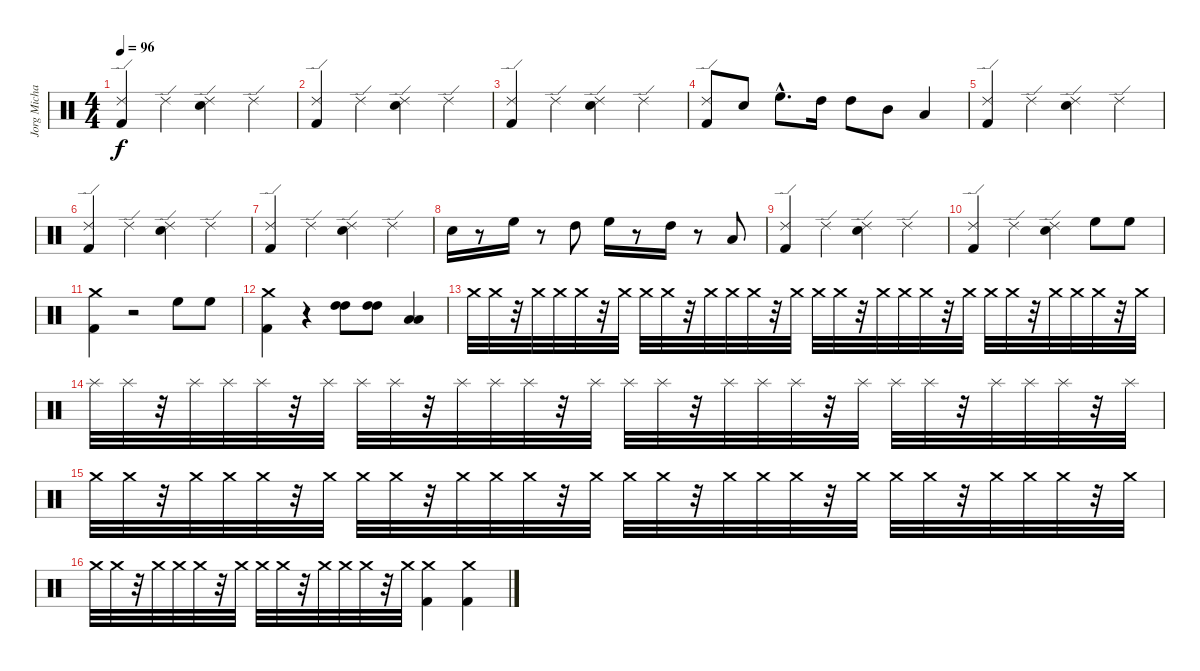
\track ("Jorg Michael" "Jorg Micha") {instrument percussion}
\staff {score}
\articulation defaults
\ts (4 4)
\tempo 96
\clef neutral
\ks c
("Ride (edge) 2" "Kick (hit) 2").4{dy f} "Ride (edge) 2".4 ("Ride (edge) 2" "Snare (hit) 2").4 "Ride (edge) 2".4 |
("Ride (edge) 2" "Kick (hit) 2").4 "Ride (edge) 2".4 ("Ride (edge) 2" "Snare (hit) 2").4 "Ride (edge) 2".4 |
("Ride (edge) 2" "Kick (hit) 2").4 "Ride (edge) 2".4 ("Ride (edge) 2" "Snare (hit) 2").4 "Ride (edge) 2".4 |
("Ride (edge) 2" "Kick (hit) 2").8 "Snare (hit) 2".8 "High Floor Tom (hit)"{hac}.8{d} "High Tom (hit)".16 "High Tom (hit)".8 "Mid Tom (hit)".8 "Low Tom (hit)".4 |
("Kick (hit) 2" "Ride (edge) 2").4 "Ride (edge) 2".4 ("Snare (hit) 2" "Ride (edge) 2").4 "Ride (edge) 2".4 |
("Kick (hit) 2" "Ride (edge) 2").4 "Ride (edge) 2".4 ("Snare (hit) 2" "Ride (edge) 2").4 "Ride (edge) 2".4 |
("Kick (hit) 2" "Ride (edge) 2").4 "Ride (edge) 2".4 ("Snare (hit) 2" "Ride (edge) 2").4 "Ride (edge) 2".4 |
"Snare (hit) 2".16 r.8 "High Floor Tom (hit)".16 r.8 "High Tom (hit)".8 "High Floor Tom (hit)".16 r.8 "High Tom (hit)".16 r.8 "Low Tom (hit)".8 |
("Kick (hit) 2" "Ride (edge) 2").4 "Ride (edge) 2".4 ("Snare (hit) 2" "Ride (edge) 2").4 "Ride (edge) 2".4 |
("Kick (hit) 2" "Ride (edge) 2").4 "Ride (edge) 2".4 ("Snare (hit) 2" "Ride (edge) 2").4 "High Floor Tom (hit)".8 "High Floor Tom (hit)".8 |
("Kick (hit) 2" "Crash medium (hit)").4 r.2 "High Floor Tom (hit)".8 "High Floor Tom (hit)".8 |
("Kick (hit) 2" "Crash medium (hit)").4 r.4 ("High Tom (hit)" "High Tom (hit)").8 ("High Tom (hit)" "High Tom (hit)").8 ("Low Tom (hit)" "Low Tom (hit)").4 |
"Crash medium (hit)".32 "Crash medium (hit)".32 r.32 "Crash medium (hit)".32 "Crash medium (hit)".32 "Crash medium (hit)".32 r.32 "Crash medium (hit)".32 "Crash medium (hit)".32 "Crash medium (hit)".32 r.32 "Crash medium (hit)".32 "Crash medium (hit)".32 "Crash medium (hit)".32 r.32 "Crash medium (hit)".32 "Crash medium (hit)".32 "Crash medium (hit)".32 r.32 "Crash medium (hit)".32 "Crash medium (hit)".32 "Crash medium (hit)".32 r.32 "Crash medium (hit)".32 "Crash medium (hit)".32 "Crash medium (hit)".32 r.32 "Crash medium (hit)".32 "Crash medium (hit)".32 "Crash medium (hit)".32 r.32 "Crash medium (hit)".32 |
"Splash (hit)".32 "Splash (hit)".32 r.32 "Splash (hit)".32 "Splash (hit)".32 "Splash (hit)".32 r.32 "Splash (hit)".32 "Splash (hit)".32 "Splash (hit)".32 r.32 "Splash (hit)".32 "Splash (hit)".32 "Splash (hit)".32 r.32 "Splash (hit)".32 "Splash (hit)".32 "Splash (hit)".32 r.32 "Splash (hit)".32 "Splash (hit)".32 "Splash (hit)".32 r.32 "Splash (hit)".32 "Splash (hit)".32 "Splash (hit)".32 r.32 "Splash (hit)".32 "Splash (hit)".32 "Splash (hit)".32 r.32 "Splash (hit)".32 |
"Crash medium (hit)".32 "Crash medium (hit)".32 r.32 "Crash medium (hit)".32 "Crash medium (hit)".32 "Crash medium (hit)".32 r.32 "Crash medium (hit)".32 "Crash medium (hit)".32 "Crash medium (hit)".32 r.32 "Crash medium (hit)".32 "Crash medium (hit)".32 "Crash medium (hit)".32 r.32 "Crash medium (hit)".32 "Crash medium (hit)".32 "Crash medium (hit)".32 r.32 "Crash medium (hit)".32 "Crash medium (hit)".32 "Crash medium (hit)".32 r.32 "Crash medium (hit)".32 "Crash medium (hit)".32 "Crash medium (hit)".32 r.32 "Crash medium (hit)".32 "Crash medium (hit)".32 "Crash medium (hit)".32 r.32 "Crash medium (hit)".32 |
"Crash medium (hit)".32 "Crash medium (hit)".32 r.32 "Crash medium (hit)".32 "Crash medium (hit)".32 "Crash medium (hit)".32 r.32 "Crash medium (hit)".32 "Crash medium (hit)".32 "Crash medium (hit)".32 r.32 "Crash medium (hit)".32 "Crash medium (hit)".32 "Crash medium (hit)".32 r.32 "Crash medium (hit)".32 ("Kick (hit) 2" "Crash medium (hit)").4 ("Kick (hit) 2" "Crash medium (hit)").4
